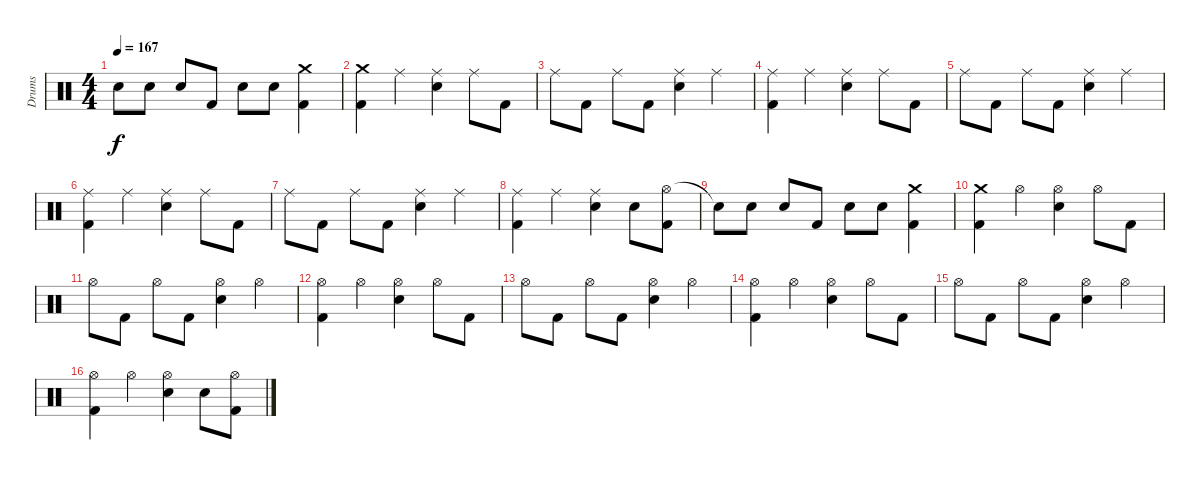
\track ("Drums" "Drums") {instrument percussion}
\staff {score}
\articulation defaults
\ts (4 4)
\tempo 167
\clef neutral
\ks c "Snare (hit)"{t}.8{dy f} "Snare (hit) 2".8 "Snare (hit) 2".8 "Kick (hit) 2".8 "Snare (hit) 2".8 "Snare (hit) 2".8
("Crash medium (hit)" "Kick (hit) 2").4 |
("Crash medium (hit)" "Kick (hit) 2").4 "Ride (middle)".4 ("Ride (middle)" "Snare (hit) 2").4 "Ride (middle)".8 "Kick (hit) 2".8 |
"Ride (middle)".8 "Kick (hit) 2".8 "Ride (middle)".8 "Kick (hit) 2".8 ("Ride (middle)" "Snare (hit) 2").4 "Ride (middle)".4 |
("Ride (middle)" "Kick (hit) 2").4 "Ride (middle)".4 ("Ride (middle)" "Snare (hit) 2").4 "Ride (middle)".8 "Kick (hit) 2".8 |
"Ride (middle)".8 "Kick (hit) 2".8 "Ride (middle)".8 "Kick (hit) 2".8 ("Ride (middle)" "Snare (hit) 2").4 "Ride (middle)".4 |
("Ride (middle)" "Kick (hit) 2").4 "Ride (middle)".4 ("Ride (middle)" "Snare (hit) 2").4 "Ride (middle)".8 "Kick (hit) 2".8 |
"Ride (middle)".8 "Kick (hit) 2".8 "Ride (middle)".8 "Kick (hit) 2".8 ("Ride (middle)" "Snare (hit) 2").4 "Ride (middle)".4 |
("Ride (middle)" "Kick (hit) 2").4 "Ride (middle)".4 ("Ride (middle)" "Snare (hit) 2").4 "Snare (hit) 2".8 ("Hi-Hat (open)" "Kick (hit) 2").8 |
"Snare (hit)"{t}.8 "Snare (hit) 2".8 "Snare (hit) 2".8 "Kick (hit) 2".8 "Snare (hit) 2".8 "Snare (hit) 2".8 ("Crash medium (hit)" "Kick (hit) 2").4 |
("Crash medium (hit)" "Kick (hit) 2").4 "Hi-Hat (open)".4 ("Hi-Hat (open)" "Snare (hit) 2").4 "Hi-Hat (open)".8 "Kick (hit) 2".8 |
"Hi-Hat (open)".8 "Kick (hit) 2".8 "Hi-Hat (open)".8 "Kick (hit) 2".8 ("Hi-Hat (open)" "Snare (hit) 2").4 "Hi-Hat (open)".4 |
("Hi-Hat (open)" "Kick (hit) 2").4 "Hi-Hat (open)".4 ("Hi-Hat (open)" "Snare (hit) 2").4 "Hi-Hat (open)".8 "Kick (hit) 2".8 |
"Hi-Hat (open)".8 "Kick (hit) 2".8 "Hi-Hat (open)".8 "Kick (hit) 2".8 ("Hi-Hat (open)" "Snare (hit) 2").4 "Hi-Hat (open)".4 |
("Hi-Hat (open)" "Kick (hit) 2").4 "Hi-Hat (open)".4 ("Hi-Hat (open)" "Snare (hit) 2").4 "Hi-Hat (open)".8 "Kick (hit) 2".8 |
"Hi-Hat (open)".8 "Kick (hit) 2".8 "Hi-Hat (open)".8 "Kick (hit) 2".8 ("Hi-Hat (open)" "Snare (hit) 2").4 "Hi-Hat (open)".4 |
("Hi-Hat (open)" "Kick (hit) 2").4 "Hi-Hat (open)".4 ("Hi-Hat (open)" "Snare (hit) 2").4 "Snare (hit) 2".8 ("Hi-Hat (open)" "Kick (hit) 2").8
